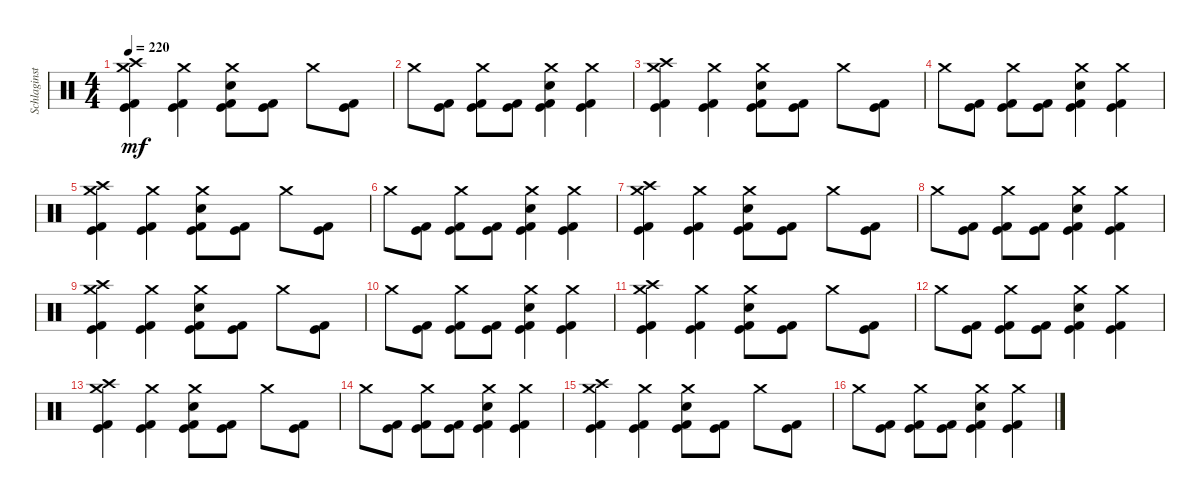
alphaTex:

\track ("Schlaginstrumente - Auswahl" "Schlaginst") {instrument percussion}
\staff {score}
\articulation defaults
\ts (4 4)
\tempo 220
\clef neutral
\ks c
("Crash medium (hit)" "Crash high (hit)" "Kick (hit) 2" "Kick (hit)").4{dy mf} ("Crash medium (hit)" "Kick (hit) 2" "Kick (hit)").4 ("Crash medium (hit)" "Electric Snare (hit)" "Kick (hit) 2" "Kick (hit)").8 ("Kick (hit) 2" "Kick (hit)").8 "Crash medium (hit)".8 ("Kick (hit) 2" "Kick (hit)").8 |
"Crash medium (hit)".8 ("Kick (hit) 2" "Kick (hit)").8 ("Crash medium (hit)" "Kick (hit) 2" "Kick (hit)").8 ("Kick (hit) 2" "Kick (hit)").8 ("Crash medium (hit)" "Electric Snare (hit)" "Kick (hit) 2" "Kick (hit)").4 ("Crash medium (hit)" "Kick (hit) 2" "Kick (hit)").4 |
("Crash medium (hit)" "Crash high (hit)" "Kick (hit) 2" "Kick (hit)").4 ("Crash medium (hit)" "Kick (hit) 2" "Kick (hit)").4 ("Crash medium (hit)" "Electric Snare (hit)" "Kick (hit) 2" "Kick (hit)").8 ("Kick (hit) 2" "Kick (hit)").8 "Crash medium (hit)".8 ("Kick (hit) 2" "Kick (hit)").8 |
"Crash medium (hit)".8 ("Kick (hit) 2" "Kick (hit)").8 ("Crash medium (hit)" "Kick (hit) 2" "Kick (hit)").8 ("Kick (hit) 2" "Kick (hit)").8 ("Crash medium (hit)" "Electric Snare (hit)" "Kick (hit) 2" "Kick (hit)").4 ("Crash medium (hit)" "Kick (hit) 2" "Kick (hit)").4 |
("Crash medium (hit)" "Crash high (hit)" "Kick (hit) 2" "Kick (hit)").4 ("Crash medium (hit)" "Kick (hit) 2" "Kick (hit)").4 ("Crash medium (hit)" "Electric Snare (hit)" "Kick (hit) 2" "Kick (hit)").8 ("Kick (hit) 2" "Kick (hit)").8 "Crash medium (hit)".8 ("Kick (hit) 2" "Kick (hit)").8 |
"Crash medium (hit)".8 ("Kick (hit) 2" "Kick (hit)").8 ("Crash medium (hit)" "Kick (hit) 2" "Kick (hit)").8 ("Kick (hit) 2" "Kick (hit)").8 ("Crash medium (hit)" "Electric Snare (hit)" "Kick (hit) 2" "Kick (hit)").4 ("Crash medium (hit)" "Kick (hit) 2" "Kick (hit)").4 |
("Crash medium (hit)" "Crash high (hit)" "Kick (hit) 2" "Kick (hit)").4 ("Crash medium (hit)" "Kick (hit) 2" "Kick (hit)").4 ("Crash medium (hit)" "Electric Snare (hit)" "Kick (hit) 2" "Kick (hit)").8 ("Kick (hit) 2" "Kick (hit)").8 "Crash medium (hit)".8 ("Kick (hit) 2" "Kick (hit)").8 |
"Crash medium (hit)".8 ("Kick (hit) 2" "Kick (hit)").8 ("Crash medium (hit)" "Kick (hit) 2" "Kick (hit)").8 ("Kick (hit) 2" "Kick (hit)").8 ("Crash medium (hit)" "Electric Snare (hit)" "Kick (hit) 2" "Kick (hit)").4 ("Crash medium (hit)" "Kick (hit) 2" "Kick (hit)").4 |
("Crash medium (hit)" "Crash high (hit)" "Kick (hit) 2" "Kick (hit)").4 ("Crash medium (hit)" "Kick (hit) 2" "Kick (hit)").4 ("Crash medium (hit)" "Electric Snare (hit)" "Kick (hit) 2" "Kick (hit)").8 ("Kick (hit) 2" "Kick (hit)").8 "Crash medium (hit)".8 ("Kick (hit) 2" "Kick (hit)").8 |
"Crash medium (hit)".8 ("Kick (hit) 2" "Kick (hit)").8 ("Crash medium (hit)" "Kick (hit) 2" "Kick (hit)").8 ("Kick (hit) 2" "Kick (hit)").8 ("Crash medium (hit)" "Electric Snare (hit)" "Kick (hit) 2" "Kick (hit)").4 ("Crash medium (hit)" "Kick (hit) 2" "Kick (hit)").4 |
("Crash medium (hit)" "Crash high (hit)" "Kick (hit) 2" "Kick (hit)").4 ("Crash medium (hit)" "Kick (hit) 2" "Kick (hit)").4 ("Crash medium (hit)" "Electric Snare (hit)" "Kick (hit) 2" "Kick (hit)").8 ("Kick (hit) 2" "Kick (hit)").8 "Crash medium (hit)".8 ("Kick (hit) 2" "Kick (hit)").8 |
"Crash medium (hit)".8 ("Kick (hit) 2" "Kick (hit)").8 ("Crash medium (hit)" "Kick (hit) 2" "Kick (hit)").8 ("Kick (hit) 2" "Kick (hit)").8 ("Crash medium (hit)" "Electric Snare (hit)" "Kick (hit) 2" "Kick (hit)").4 ("Crash medium (hit)" "Kick (hit) 2" "Kick (hit)").4 |
("Crash medium (hit)" "Crash high (hit)" "Kick (hit) 2" "Kick (hit)").4 ("Crash medium (hit)" "Kick (hit) 2" "Kick (hit)").4 ("Crash medium (hit)" "Electric Snare (hit)" "Kick (hit) 2" "Kick (hit)").8 ("Kick (hit) 2" "Kick (hit)").8 "Crash medium (hit)".8 ("Kick (hit) 2" "Kick (hit)").8 |
"Crash medium (hit)".8 ("Kick (hit) 2" "Kick (hit)").8 ("Crash medium (hit)" "Kick (hit) 2" "Kick (hit)").8 ("Kick (hit) 2" "Kick (hit)").8 ("Crash medium (hit)" "Electric Snare (hit)" "Kick (hit) 2" "Kick (hit)").4 ("Crash medium (hit)" "Kick (hit) 2" "Kick (hit)").4 |
("Crash medium (hit)" "Crash high (hit)" "Kick (hit) 2" "Kick (hit)").4 ("Crash medium (hit)" "Kick (hit) 2" "Kick (hit)").4 ("Crash medium (hit)" "Electric Snare (hit)" "Kick (hit) 2" "Kick (hit)").8 ("Kick (hit) 2" "Kick (hit)").8 "Crash medium (hit)".8 ("Kick (hit) 2" "Kick (hit)").8 |
"Crash medium (hit)".8 ("Kick (hit) 2" "Kick (hit)").8 ("Crash medium (hit)" "Kick (hit) 2" "Kick (hit)").8 ("Kick (hit) 2" "Kick (hit)").8 ("Crash medium (hit)" "Electric Snare (hit)" "Kick (hit) 2" "Kick (hit)").4 ("Crash medium (hit)" "Kick (hit) 2" "Kick (hit)").4
